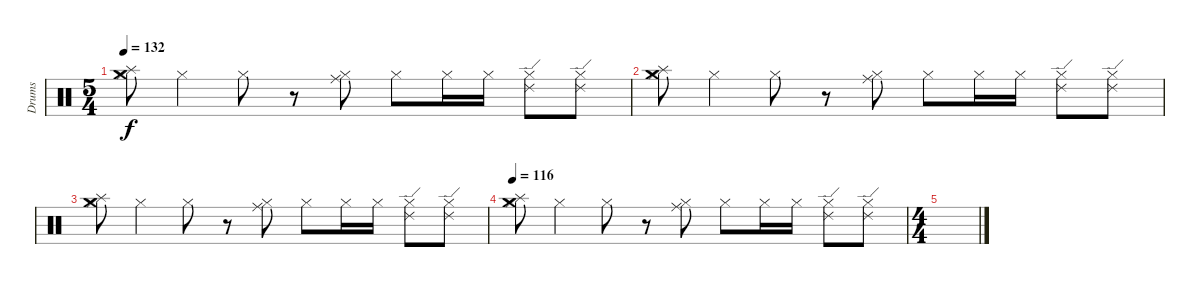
\track ("Drums" "Drums") {instrument percussion}
\staff {score}
\articulation defaults
\ts (5 4)
\tempo 132
\clef neutral
\ks c
("Hi-Hat (closed)" "Splash (hit)" "Crash medium (hit)").8{dy f} "Hi-Hat (closed)".4 "Hi-Hat (closed)".8 r.8 ("Hi-Hat (closed)" "Ride (middle)").8 "Hi-Hat (closed)".8 "Hi-Hat (closed)".16 "Hi-Hat (closed)".16 ("Ride (edge) 2" "Hi-Hat (closed)").8 ("Ride (edge) 2" "Hi-Hat (closed)").8 |
("Hi-Hat (closed)" "Splash (hit)" "Crash medium (hit)").8 "Hi-Hat (closed)".4 "Hi-Hat (closed)".8 r.8 ("Hi-Hat (closed)" "Ride (middle)").8 "Hi-Hat (closed)".8 "Hi-Hat (closed)".16 "Hi-Hat (closed)".16 ("Ride (edge) 2" "Hi-Hat (closed)").8 ("Ride (edge) 2" "Hi-Hat (closed)").8 |
("Hi-Hat (closed)" "Splash (hit)" "Crash medium (hit)").8 "Hi-Hat (closed)".4 "Hi-Hat (closed)".8 r.8 ("Hi-Hat (closed)" "Ride (middle)").8 "Hi-Hat (closed)".8 "Hi-Hat (closed)".16 "Hi-Hat (closed)".16 ("Ride (edge) 2" "Hi-Hat (closed)").8 ("Ride (edge) 2" "Hi-Hat (closed)").8 |
\tempo 116
("Hi-Hat (closed)" "Splash (hit)" "Crash medium (hit)").8 "Hi-Hat (closed)".4 "Hi-Hat (closed)".8 r.8 ("Hi-Hat (closed)" "Ride (middle)").8 "Hi-Hat (closed)".8 "Hi-Hat (closed)".16 "Hi-Hat (closed)".16 ("Ride (edge) 2" "Hi-Hat (closed)").8 ("Ride (edge) 2" "Hi-Hat (closed)").8 |
\ts (4 4)
